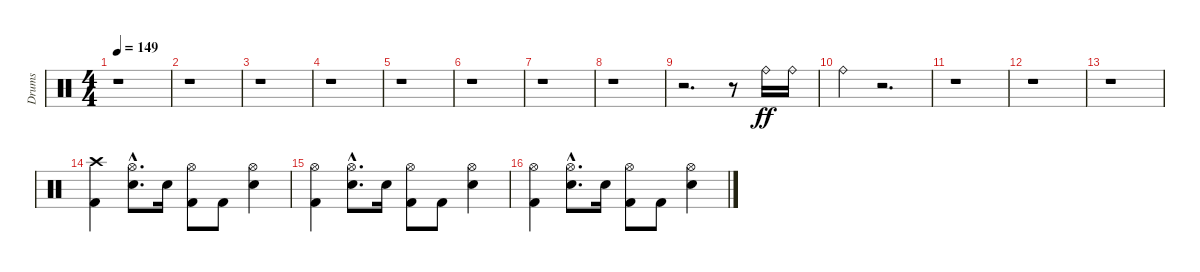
\track ("Drums" "Drums") {instrument percussion}
\staff {score}
\articulation defaults
\ts (4 4)
\tempo 149
\clef neutral
\ks c
r.1{dy ff} |
r.1 |
r.1 |
r.1 |
r.1 |
r.1 |
r.1 |
r.1 |
r.2{d} r.8 "Ride (bell)".16 "Ride (bell)".16 |
"Ride (bell)".4 r.2{d} |
r.1 |
r.1 |
r.1 |
("Crash high (hit)" "Kick (hit) 2").4 ("Hi-Hat (open)" "Electric Snare (hit)"{hac}).8{d} "Electric Snare (hit)".16 ("Hi-Hat (open)" "Kick (hit) 2").8 "Kick (hit) 2".8 ("Hi-Hat (open)" "Electric Snare (hit)").4 |
("Kick (hit) 2" "Hi-Hat (open)").4 ("Hi-Hat (open)" "Electric Snare (hit)"{hac}).8{d} "Electric Snare (hit)".16 ("Hi-Hat (open)" "Kick (hit) 2").8 "Kick (hit) 2".8 ("Hi-Hat (open)" "Electric Snare (hit)").4 |
("Kick (hit) 2" "Hi-Hat (open)").4 ("Hi-Hat (open)" "Electric Snare (hit)"{hac}).8{d} "Electric Snare (hit)".16 ("Hi-Hat (open)" "Kick (hit) 2").8 "Kick (hit) 2".8 ("Hi-Hat (open)" "Electric Snare (hit)").4
